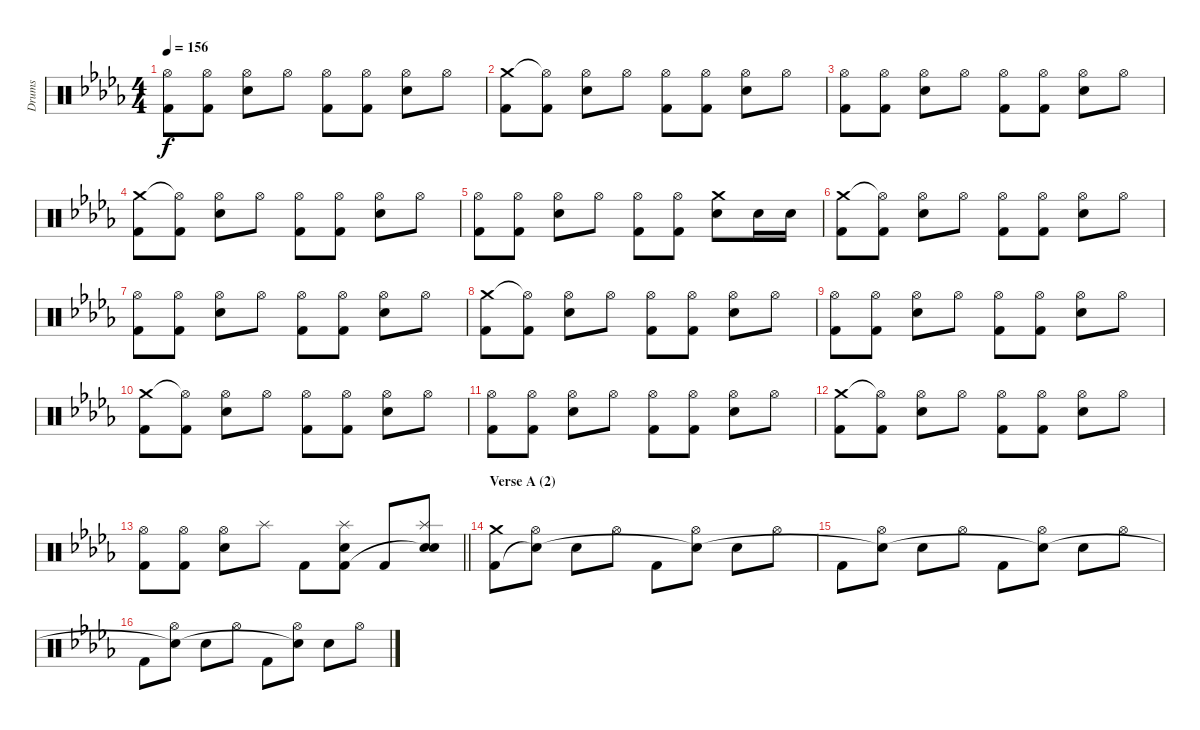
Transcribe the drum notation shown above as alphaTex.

\track ("Drums" "Drums") {instrument percussion}
\staff {score}
\articulation defaults
\ts (4 4)
\tempo 156
\clef neutral
\ks db
("Hi-Hat (open)" "Kick (hit) 2").8{dy f} ("Hi-Hat (open)" "Kick (hit) 2").8 ("Hi-Hat (open)" "Electric Snare (hit)").8 "Hi-Hat (open)".8 ("Hi-Hat (open)" "Kick (hit) 2").8 ("Hi-Hat (open)" "Kick (hit) 2").8 ("Hi-Hat (open)" "Electric Snare (hit)").8 "Hi-Hat (open)".8 |
("Crash medium (hit)" "Kick (hit) 2").8 ("Hi-Hat (open)"{t} "Kick (hit) 2").8 ("Hi-Hat (open)" "Electric Snare (hit)").8 "Hi-Hat (open)".8 ("Hi-Hat (open)" "Kick (hit) 2").8 ("Hi-Hat (open)" "Kick (hit) 2").8 ("Hi-Hat (open)" "Electric Snare (hit)").8 "Hi-Hat (open)".8 |
("Hi-Hat (open)" "Kick (hit) 2").8 ("Hi-Hat (open)" "Kick (hit) 2").8 ("Hi-Hat (open)" "Electric Snare (hit)").8 "Hi-Hat (open)".8 ("Hi-Hat (open)" "Kick (hit) 2").8 ("Hi-Hat (open)" "Kick (hit) 2").8 ("Hi-Hat (open)" "Electric Snare (hit)").8 "Hi-Hat (open)".8 |
("Crash medium (hit)" "Kick (hit) 2").8 ("Hi-Hat (open)"{t} "Kick (hit) 2").8 ("Hi-Hat (open)" "Electric Snare (hit)").8 "Hi-Hat (open)".8 ("Hi-Hat (open)" "Kick (hit) 2").8 ("Hi-Hat (open)" "Kick (hit) 2").8 ("Hi-Hat (open)" "Electric Snare (hit)").8 "Hi-Hat (open)".8 |
("Hi-Hat (open)" "Kick (hit) 2").8 ("Hi-Hat (open)" "Kick (hit) 2").8 ("Hi-Hat (open)" "Electric Snare (hit)").8 "Hi-Hat (open)".8 ("Hi-Hat (open)" "Kick (hit) 2").8 ("Hi-Hat (open)" "Kick (hit) 2").8 ("Crash medium (hit)" "Electric Snare (hit)").8 "Electric Snare (hit)".16 "Electric Snare (hit)".16 |
("Crash medium (hit)" "Kick (hit) 2").8 ("Hi-Hat (open)"{t} "Kick (hit) 2").8 ("Hi-Hat (open)" "Electric Snare (hit)").8 "Hi-Hat (open)".8 ("Hi-Hat (open)" "Kick (hit) 2").8 ("Hi-Hat (open)" "Kick (hit) 2").8 ("Hi-Hat (open)" "Electric Snare (hit)").8 "Hi-Hat (open)".8 |
("Hi-Hat (open)" "Kick (hit) 2").8 ("Hi-Hat (open)" "Kick (hit) 2").8 ("Hi-Hat (open)" "Electric Snare (hit)").8 "Hi-Hat (open)".8 ("Hi-Hat (open)" "Kick (hit) 2").8 ("Hi-Hat (open)" "Kick (hit) 2").8 ("Hi-Hat (open)" "Electric Snare (hit)").8 "Hi-Hat (open)".8 |
("Crash medium (hit)" "Kick (hit) 2").8 ("Hi-Hat (open)"{t} "Kick (hit) 2").8 ("Hi-Hat (open)" "Electric Snare (hit)").8 "Hi-Hat (open)".8 ("Hi-Hat (open)" "Kick (hit) 2").8 ("Hi-Hat (open)" "Kick (hit) 2").8 ("Hi-Hat (open)" "Electric Snare (hit)").8 "Hi-Hat (open)".8 |
("Hi-Hat (open)" "Kick (hit) 2").8 ("Hi-Hat (open)" "Kick (hit) 2").8 ("Hi-Hat (open)" "Electric Snare (hit)").8 "Hi-Hat (open)".8 ("Hi-Hat (open)" "Kick (hit) 2").8 ("Hi-Hat (open)" "Kick (hit) 2").8 ("Hi-Hat (open)" "Electric Snare (hit)").8 "Hi-Hat (open)".8 |
("Crash medium (hit)" "Kick (hit) 2").8 ("Hi-Hat (open)"{t} "Kick (hit) 2").8 ("Hi-Hat (open)" "Electric Snare (hit)").8 "Hi-Hat (open)".8 ("Hi-Hat (open)" "Kick (hit) 2").8 ("Hi-Hat (open)" "Kick (hit) 2").8 ("Hi-Hat (open)" "Electric Snare (hit)").8 "Hi-Hat (open)".8 |
("Hi-Hat (open)" "Kick (hit) 2").8 ("Hi-Hat (open)" "Kick (hit) 2").8 ("Hi-Hat (open)" "Electric Snare (hit)").8 "Hi-Hat (open)".8 ("Hi-Hat (open)" "Kick (hit) 2").8 ("Hi-Hat (open)" "Kick (hit) 2").8 ("Hi-Hat (open)" "Electric Snare (hit)").8 "Hi-Hat (open)".8 |
("Crash medium (hit)" "Kick (hit) 2").8 ("Hi-Hat (open)"{t} "Kick (hit) 2").8 ("Hi-Hat (open)" "Electric Snare (hit)").8 "Hi-Hat (open)".8 ("Hi-Hat (open)" "Kick (hit) 2").8 ("Hi-Hat (open)" "Kick (hit) 2").8 ("Hi-Hat (open)" "Electric Snare (hit)").8 "Hi-Hat (open)".8 |
\barLineRight lightlight
("Hi-Hat (open)" "Kick (hit) 2").8 ("Hi-Hat (open)" "Kick (hit) 2").8 ("Hi-Hat (open)" "Electric Snare (hit)").8 "Splash (hit)".8 "Kick (hit) 2".8 ("Splash (hit)" "Electric Snare (hit)" "Kick (hit) 2").8 "Kick (hit) 2".8 ("Splash (hit)" "Electric Snare (hit)" "Snare (hit)"{t}).8 |
\section ("" "Verse A (2)")
("Crash medium (hit)" "Kick (hit) 2").8 ("Hi-Hat (open)" "Snare (hit)"{t}).8 "Electric Snare (hit)".8 "Hi-Hat (open)".8 "Kick (hit) 2".8 ("Hi-Hat (open)" "Snare (hit)"{t}).8 "Electric Snare (hit)".8 "Hi-Hat (open)".8 |
"Kick (hit) 2".8 ("Hi-Hat (open)" "Snare (hit)"{t}).8 "Electric Snare (hit)".8 "Hi-Hat (open)".8 "Kick (hit) 2".8 ("Hi-Hat (open)" "Snare (hit)"{t}).8 "Electric Snare (hit)".8 "Hi-Hat (open)".8 |
"Kick (hit) 2".8 ("Hi-Hat (open)" "Snare (hit)"{t}).8 "Electric Snare (hit)".8 "Hi-Hat (open)".8 "Kick (hit) 2".8 ("Hi-Hat (open)" "Snare (hit)"{t}).8 "Electric Snare (hit)".8 "Hi-Hat (open)".8
